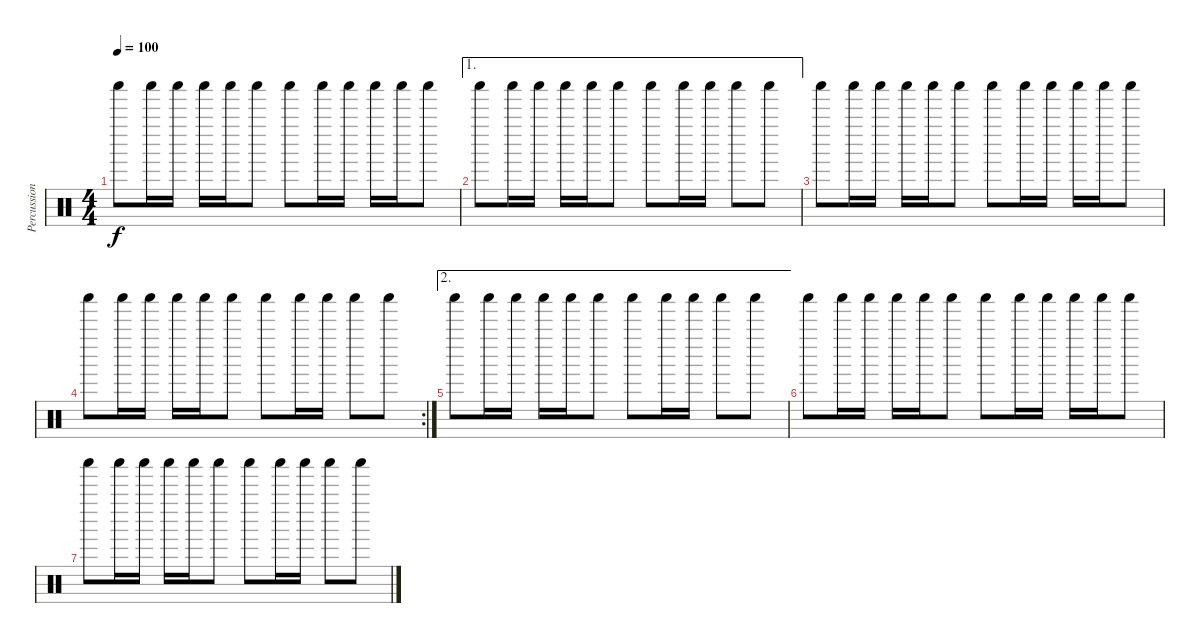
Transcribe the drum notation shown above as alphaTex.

\track ("Percussion" "Percussion") {instrument percussion}
\staff {score}
\articulation defaults
\ts (4 4)
\tempo 100
\clef neutral
\ks c "Shaker (hit)".8{dy f} "Shaker (hit)".16 "Shaker (hit)".16 "Shaker (hit)".16 "Shaker (hit)".16 "Shaker (hit)".8 "Shaker (hit)".8 "Shaker (hit)".16 "Shaker (hit)".16 "Shaker (hit)".16 "Shaker (hit)".16 "Shaker (hit)".8
|
\ae 1 "Shaker (hit)".8 "Shaker (hit)".16 "Shaker (hit)".16 "Shaker (hit)".16 "Shaker (hit)".16 "Shaker (hit)".8 "Shaker (hit)".8 "Shaker (hit)".16 "Shaker (hit)".16 "Shaker (hit)".8 "Shaker (hit)".8
|
"Shaker (hit)".8 "Shaker (hit)".16 "Shaker (hit)".16 "Shaker (hit)".16 "Shaker (hit)".16 "Shaker (hit)".8 "Shaker (hit)".8 "Shaker (hit)".16 "Shaker (hit)".16 "Shaker (hit)".16 "Shaker (hit)".16 "Shaker (hit)".8 |
\rc 2 "Shaker (hit)".8 "Shaker (hit)".16 "Shaker (hit)".16 "Shaker (hit)".16 "Shaker (hit)".16 "Shaker (hit)".8 "Shaker (hit)".8 "Shaker (hit)".16 "Shaker (hit)".16 "Shaker (hit)".8 "Shaker (hit)".8
|
\ae 2 "Shaker (hit)".8 "Shaker (hit)".16 "Shaker (hit)".16 "Shaker (hit)".16 "Shaker (hit)".16 "Shaker (hit)".8 "Shaker (hit)".8 "Shaker (hit)".16 "Shaker (hit)".16 "Shaker (hit)".8 "Shaker (hit)".8
|
"Shaker (hit)".8 "Shaker (hit)".16 "Shaker (hit)".16 "Shaker (hit)".16 "Shaker (hit)".16 "Shaker (hit)".8 "Shaker (hit)".8 "Shaker (hit)".16 "Shaker (hit)".16 "Shaker (hit)".16 "Shaker (hit)".16 "Shaker (hit)".8 |
"Shaker (hit)".8 "Shaker (hit)".16 "Shaker (hit)".16 "Shaker (hit)".16 "Shaker (hit)".16 "Shaker (hit)".8 "Shaker (hit)".8 "Shaker (hit)".16 "Shaker (hit)".16 "Shaker (hit)".8 "Shaker (hit)".8
